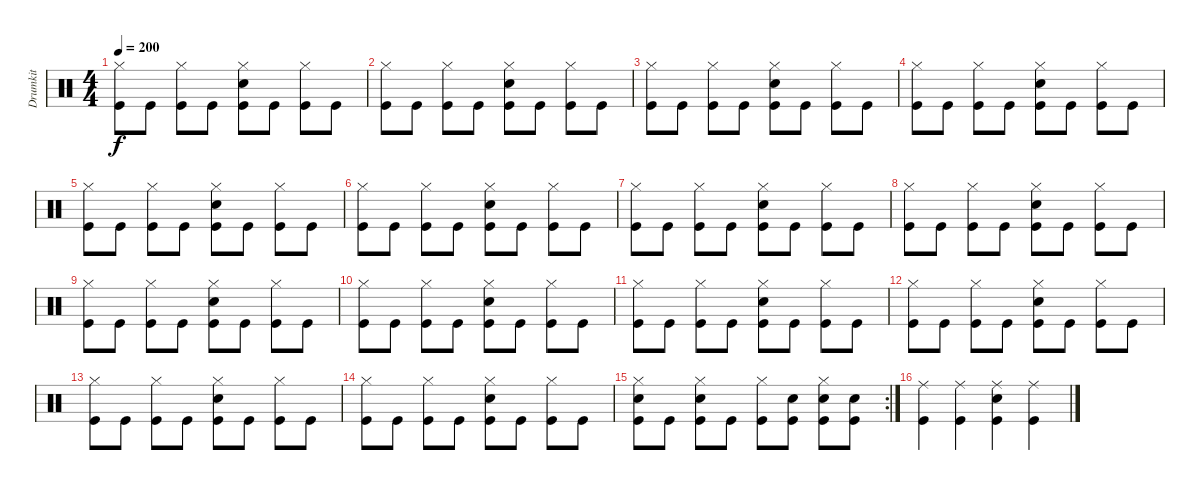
\track ("Drumkit" "Drumkit") {instrument percussion}
\staff {score}
\articulation defaults
\ts (4 4)
\tempo 200
\clef neutral
\ks c
("Hi-Hat (closed)" "Kick (hit)").8{dy f} "Kick (hit)".8 ("Hi-Hat (closed)" "Kick (hit)").8 "Kick (hit)".8 ("Hi-Hat (closed)" "Snare (hit) 2" "Kick (hit)").8 "Kick (hit)".8 ("Hi-Hat (closed)" "Kick (hit)").8 "Kick (hit)".8 |
("Hi-Hat (closed)" "Kick (hit)").8 "Kick (hit)".8 ("Hi-Hat (closed)" "Kick (hit)").8 "Kick (hit)".8 ("Hi-Hat (closed)" "Snare (hit) 2" "Kick (hit)").8 "Kick (hit)".8 ("Hi-Hat (closed)" "Kick (hit)").8 "Kick (hit)".8 |
("Hi-Hat (closed)" "Kick (hit)").8 "Kick (hit)".8 ("Hi-Hat (closed)" "Kick (hit)").8 "Kick (hit)".8 ("Hi-Hat (closed)" "Snare (hit) 2" "Kick (hit)").8 "Kick (hit)".8 ("Hi-Hat (closed)" "Kick (hit)").8 "Kick (hit)".8 |
("Hi-Hat (closed)" "Kick (hit)").8 "Kick (hit)".8 ("Hi-Hat (closed)" "Kick (hit)").8 "Kick (hit)".8 ("Hi-Hat (closed)" "Snare (hit) 2" "Kick (hit)").8 "Kick (hit)".8 ("Hi-Hat (closed)" "Kick (hit)").8 "Kick (hit)".8 |
("Hi-Hat (closed)" "Kick (hit)").8 "Kick (hit)".8 ("Hi-Hat (closed)" "Kick (hit)").8 "Kick (hit)".8 ("Hi-Hat (closed)" "Snare (hit) 2" "Kick (hit)").8 "Kick (hit)".8 ("Hi-Hat (closed)" "Kick (hit)").8 "Kick (hit)".8 |
("Hi-Hat (closed)" "Kick (hit)").8 "Kick (hit)".8 ("Hi-Hat (closed)" "Kick (hit)").8 "Kick (hit)".8 ("Hi-Hat (closed)" "Snare (hit) 2" "Kick (hit)").8 "Kick (hit)".8 ("Hi-Hat (closed)" "Kick (hit)").8 "Kick (hit)".8 |
("Hi-Hat (closed)" "Kick (hit)").8 "Kick (hit)".8 ("Hi-Hat (closed)" "Kick (hit)").8 "Kick (hit)".8 ("Hi-Hat (closed)" "Snare (hit) 2" "Kick (hit)").8 "Kick (hit)".8 ("Hi-Hat (closed)" "Kick (hit)").8 "Kick (hit)".8 |
("Hi-Hat (closed)" "Kick (hit)").8 "Kick (hit)".8 ("Hi-Hat (closed)" "Kick (hit)").8 "Kick (hit)".8 ("Hi-Hat (closed)" "Snare (hit) 2" "Kick (hit)").8 "Kick (hit)".8 ("Hi-Hat (closed)" "Kick (hit)").8 "Kick (hit)".8 |
("Hi-Hat (closed)" "Kick (hit)").8 "Kick (hit)".8 ("Hi-Hat (closed)" "Kick (hit)").8 "Kick (hit)".8 ("Hi-Hat (closed)" "Snare (hit) 2" "Kick (hit)").8 "Kick (hit)".8 ("Hi-Hat (closed)" "Kick (hit)").8 "Kick (hit)".8 |
("Hi-Hat (closed)" "Kick (hit)").8 "Kick (hit)".8 ("Hi-Hat (closed)" "Kick (hit)").8 "Kick (hit)".8 ("Hi-Hat (closed)" "Snare (hit) 2" "Kick (hit)").8 "Kick (hit)".8 ("Hi-Hat (closed)" "Kick (hit)").8 "Kick (hit)".8 |
("Hi-Hat (closed)" "Kick (hit)").8 "Kick (hit)".8 ("Hi-Hat (closed)" "Kick (hit)").8 "Kick (hit)".8 ("Hi-Hat (closed)" "Snare (hit) 2" "Kick (hit)").8 "Kick (hit)".8 ("Hi-Hat (closed)" "Kick (hit)").8 "Kick (hit)".8 |
("Hi-Hat (closed)" "Kick (hit)").8 "Kick (hit)".8 ("Hi-Hat (closed)" "Kick (hit)").8 "Kick (hit)".8 ("Hi-Hat (closed)" "Snare (hit) 2" "Kick (hit)").8 "Kick (hit)".8 ("Hi-Hat (closed)" "Kick (hit)").8 "Kick (hit)".8 |
("Hi-Hat (closed)" "Kick (hit)").8 "Kick (hit)".8 ("Hi-Hat (closed)" "Kick (hit)").8 "Kick (hit)".8 ("Hi-Hat (closed)" "Snare (hit) 2" "Kick (hit)").8 "Kick (hit)".8 ("Hi-Hat (closed)" "Kick (hit)").8 "Kick (hit)".8 |
("Hi-Hat (closed)" "Kick (hit)").8 "Kick (hit)".8 ("Hi-Hat (closed)" "Kick (hit)").8 "Kick (hit)".8 ("Hi-Hat (closed)" "Snare (hit) 2" "Kick (hit)").8 "Kick (hit)".8 ("Hi-Hat (closed)" "Kick (hit)").8 "Kick (hit)".8 |
\rc 2
("Hi-Hat (closed)" "Snare (hit) 2" "Kick (hit)").8 "Kick (hit)".8 ("Hi-Hat (closed)" "Snare (hit) 2" "Kick (hit)").8 "Kick (hit)".8 ("Hi-Hat (closed)" "Kick (hit)").8 ("Snare (hit) 2" "Kick (hit)").8 ("Hi-Hat (closed)" "Snare (hit) 2" "Kick (hit)").8 ("Snare (hit) 2" "Kick (hit)").8 |
("Ride (middle)" "Kick (hit)").4 ("Ride (middle)" "Kick (hit)").4 ("Ride (middle)" "Snare (hit) 2" "Kick (hit)").4 ("Ride (middle)" "Kick (hit)").4
